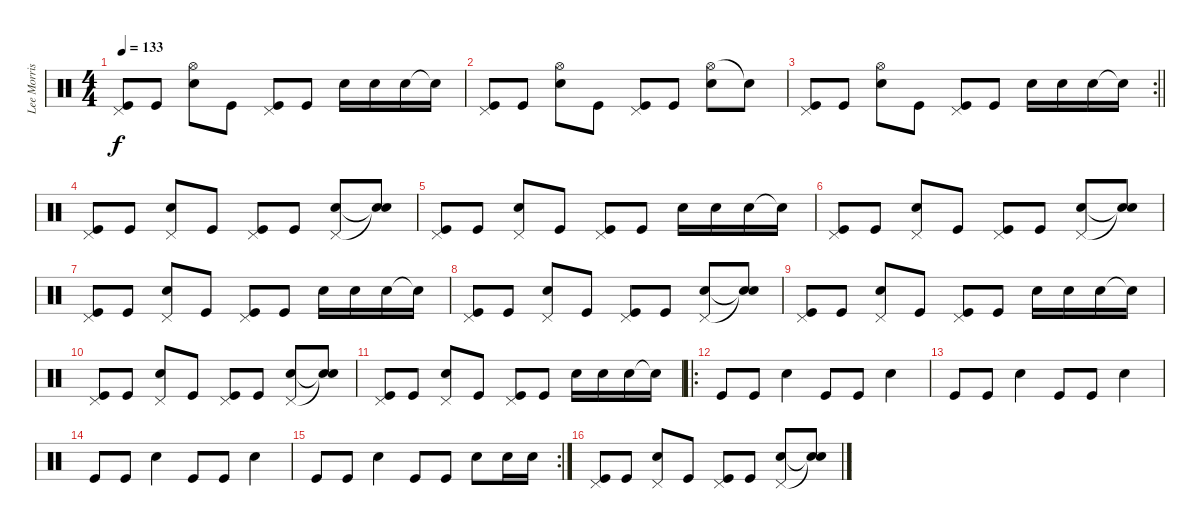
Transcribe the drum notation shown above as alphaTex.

\track ("Lee Morris" "Lee Morris") {instrument percussion}
\staff {score}
\articulation defaults
\ts (4 4)
\tempo 133
\clef neutral
\ks c
("Pedal Hi-Hat (hit)" "Kick (hit)").8{dy f} "Kick (hit)".8 ("Hi-Hat (open)" "Electric Snare (hit)").8 "Kick (hit)".8 ("Pedal Hi-Hat (hit)" "Kick (hit)").8 "Kick (hit)".8 "Electric Snare (hit)".16 "Electric Snare (hit)".16 "Electric Snare (hit)".16 "Snare (hit)"{t}.16 |
("Pedal Hi-Hat (hit)" "Kick (hit)").8 "Kick (hit)".8 ("Hi-Hat (open)" "Electric Snare (hit)").8 "Kick (hit)".8 ("Pedal Hi-Hat (hit)" "Kick (hit)").8 "Kick (hit)".8 ("Hi-Hat (open)" "Electric Snare (hit)").8 "Snare (hit)"{t}.8 |
\rc 2
\barLineRight lightlight
("Pedal Hi-Hat (hit)" "Kick (hit)").8 "Kick (hit)".8 ("Hi-Hat (open)" "Electric Snare (hit)").8 "Kick (hit)".8 ("Pedal Hi-Hat (hit)" "Kick (hit)").8 "Kick (hit)".8 "Electric Snare (hit)".16 "Electric Snare (hit)".16 "Electric Snare (hit)".16 "Snare (hit)"{t}.16 |
("Pedal Hi-Hat (hit)" "Kick (hit)").8 "Kick (hit)".8 ("Electric Snare (hit)" "Pedal Hi-Hat (hit)").8 "Kick (hit)".8 ("Pedal Hi-Hat (hit)" "Kick (hit)").8 "Kick (hit)".8 ("Electric Snare (hit)" "Pedal Hi-Hat (hit)").8 ("Snare (hit)"{t} "Snare (hit)"{t}).8 |
("Pedal Hi-Hat (hit)" "Kick (hit)").8 "Kick (hit)".8 ("Electric Snare (hit)" "Pedal Hi-Hat (hit)").8 "Kick (hit)".8 ("Pedal Hi-Hat (hit)" "Kick (hit)").8 "Kick (hit)".8 "Electric Snare (hit)".16 "Electric Snare (hit)".16 "Electric Snare (hit)".16 "Snare (hit)"{t}.16 |
("Pedal Hi-Hat (hit)" "Kick (hit)").8 "Kick (hit)".8 ("Electric Snare (hit)" "Pedal Hi-Hat (hit)").8 "Kick (hit)".8 ("Pedal Hi-Hat (hit)" "Kick (hit)").8 "Kick (hit)".8 ("Electric Snare (hit)" "Pedal Hi-Hat (hit)").8 ("Snare (hit)"{t} "Snare (hit)"{t}).8 |
("Pedal Hi-Hat (hit)" "Kick (hit)").8 "Kick (hit)".8 ("Electric Snare (hit)" "Pedal Hi-Hat (hit)").8 "Kick (hit)".8 ("Pedal Hi-Hat (hit)" "Kick (hit)").8 "Kick (hit)".8 "Electric Snare (hit)".16 "Electric Snare (hit)".16 "Electric Snare (hit)".16 "Snare (hit)"{t}.16 |
("Pedal Hi-Hat (hit)" "Kick (hit)").8 "Kick (hit)".8 ("Electric Snare (hit)" "Pedal Hi-Hat (hit)").8 "Kick (hit)".8 ("Pedal Hi-Hat (hit)" "Kick (hit)").8 "Kick (hit)".8 ("Electric Snare (hit)" "Pedal Hi-Hat (hit)").8 ("Snare (hit)"{t} "Snare (hit)"{t}).8 |
("Pedal Hi-Hat (hit)" "Kick (hit)").8 "Kick (hit)".8 ("Electric Snare (hit)" "Pedal Hi-Hat (hit)").8 "Kick (hit)".8 ("Pedal Hi-Hat (hit)" "Kick (hit)").8 "Kick (hit)".8 "Electric Snare (hit)".16 "Electric Snare (hit)".16 "Electric Snare (hit)".16 "Snare (hit)"{t}.16 |
("Pedal Hi-Hat (hit)" "Kick (hit)").8 "Kick (hit)".8 ("Electric Snare (hit)" "Pedal Hi-Hat (hit)").8 "Kick (hit)".8 ("Pedal Hi-Hat (hit)" "Kick (hit)").8 "Kick (hit)".8 ("Electric Snare (hit)" "Pedal Hi-Hat (hit)").8 ("Snare (hit)"{t} "Snare (hit)"{t}).8 |
("Pedal Hi-Hat (hit)" "Kick (hit)").8 "Kick (hit)".8 ("Electric Snare (hit)" "Pedal Hi-Hat (hit)").8 "Kick (hit)".8 ("Pedal Hi-Hat (hit)" "Kick (hit)").8 "Kick (hit)".8 "Electric Snare (hit)".16 "Electric Snare (hit)".16 "Electric Snare (hit)".16 "Snare (hit)"{t}.16 |
\ro "Kick (hit)".8 "Kick (hit)".8 "Electric Snare (hit)".4 "Kick (hit)".8 "Kick (hit)".8 "Electric Snare (hit)".4
|
"Kick (hit)".8 "Kick (hit)".8 "Electric Snare (hit)".4 "Kick (hit)".8 "Kick (hit)".8 "Electric Snare (hit)".4 |
"Kick (hit)".8 "Kick (hit)".8 "Electric Snare (hit)".4 "Kick (hit)".8 "Kick (hit)".8 "Electric Snare (hit)".4 |
\rc 2 "Kick (hit)".8 "Kick (hit)".8 "Electric Snare (hit)".4 "Kick (hit)".8 "Kick (hit)".8 "Electric Snare (hit)".8 "Electric Snare (hit)".16 "Electric Snare (hit)".16
|
("Pedal Hi-Hat (hit)" "Kick (hit)").8 "Kick (hit)".8 ("Electric Snare (hit)" "Pedal Hi-Hat (hit)").8 "Kick (hit)".8 ("Pedal Hi-Hat (hit)" "Kick (hit)").8 "Kick (hit)".8 ("Electric Snare (hit)" "Pedal Hi-Hat (hit)").8 ("Snare (hit)"{t} "Snare (hit)"{t}).8
